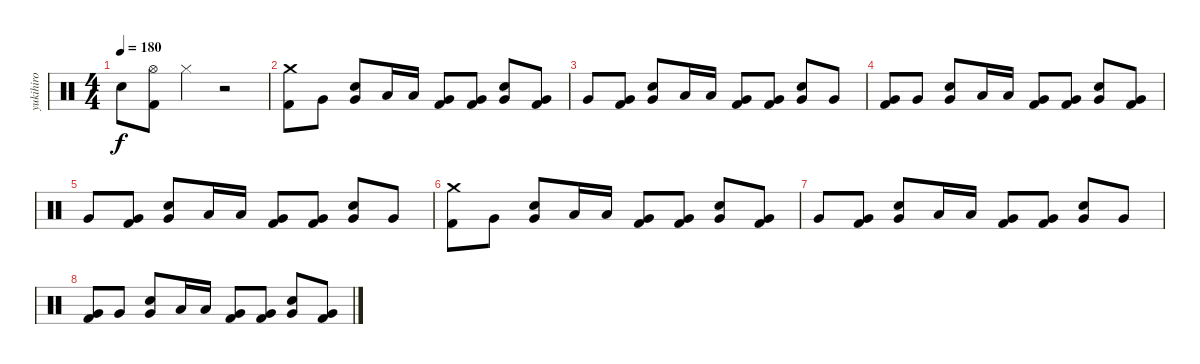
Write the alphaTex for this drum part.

\track ("yukihiro" "yukihiro") {instrument percussion}
\staff {score}
\articulation defaults
\ts (4 4)
\tempo 180
\clef neutral
\ks c "Snare (hit) 2".8{dy f}
("Hi-Hat (open)" "Kick (hit) 2").8 "Hi-Hat (closed)".4 r.2 |
("Crash medium (hit)" "Kick (hit) 2").8 "Very Low Tom (hit)".8 ("Snare (hit) 2" "Very Low Tom (hit)").8 "Low Tom (hit)".16 "Low Tom (hit)".16 ("Very Low Tom (hit)" "Kick (hit) 2").8 ("Very Low Tom (hit)" "Kick (hit) 2").8 ("Snare (hit) 2" "Very Low Tom (hit)").8 ("Very Low Tom (hit)" "Kick (hit) 2").8 |
"Very Low Tom (hit)".8 ("Very Low Tom (hit)" "Kick (hit) 2").8 ("Snare (hit) 2" "Very Low Tom (hit)").8 "Low Tom (hit)".16 "Low Tom (hit)".16 ("Very Low Tom (hit)" "Kick (hit) 2").8 ("Very Low Tom (hit)" "Kick (hit) 2").8 ("Snare (hit) 2" "Very Low Tom (hit)").8 "Very Low Tom (hit)".8 |
("Very Low Tom (hit)" "Kick (hit) 2").8 "Very Low Tom (hit)".8 ("Snare (hit) 2" "Very Low Tom (hit)").8 "Low Tom (hit)".16 "Low Tom (hit)".16 ("Very Low Tom (hit)" "Kick (hit) 2").8 ("Very Low Tom (hit)" "Kick (hit) 2").8 ("Snare (hit) 2" "Very Low Tom (hit)").8 ("Very Low Tom (hit)" "Kick (hit) 2").8 |
"Very Low Tom (hit)".8 ("Very Low Tom (hit)" "Kick (hit) 2").8 ("Snare (hit) 2" "Very Low Tom (hit)").8 "Low Tom (hit)".16 "Low Tom (hit)".16 ("Very Low Tom (hit)" "Kick (hit) 2").8 ("Very Low Tom (hit)" "Kick (hit) 2").8 ("Snare (hit) 2" "Very Low Tom (hit)").8 "Very Low Tom (hit)".8 |
("Crash medium (hit)" "Kick (hit) 2").8 "Very Low Tom (hit)".8 ("Snare (hit) 2" "Very Low Tom (hit)").8 "Low Tom (hit)".16 "Low Tom (hit)".16 ("Very Low Tom (hit)" "Kick (hit) 2").8 ("Very Low Tom (hit)" "Kick (hit) 2").8 ("Snare (hit) 2" "Very Low Tom (hit)").8 ("Very Low Tom (hit)" "Kick (hit) 2").8 |
"Very Low Tom (hit)".8 ("Very Low Tom (hit)" "Kick (hit) 2").8 ("Snare (hit) 2" "Very Low Tom (hit)").8 "Low Tom (hit)".16 "Low Tom (hit)".16 ("Very Low Tom (hit)" "Kick (hit) 2").8 ("Very Low Tom (hit)" "Kick (hit) 2").8 ("Snare (hit) 2" "Very Low Tom (hit)").8 "Very Low Tom (hit)".8 |
("Very Low Tom (hit)" "Kick (hit) 2").8 "Very Low Tom (hit)".8 ("Snare (hit) 2" "Very Low Tom (hit)").8 "Low Tom (hit)".16 "Low Tom (hit)".16 ("Very Low Tom (hit)" "Kick (hit) 2").8 ("Very Low Tom (hit)" "Kick (hit) 2").8 ("Snare (hit) 2" "Very Low Tom (hit)").8 ("Very Low Tom (hit)" "Kick (hit) 2").8
